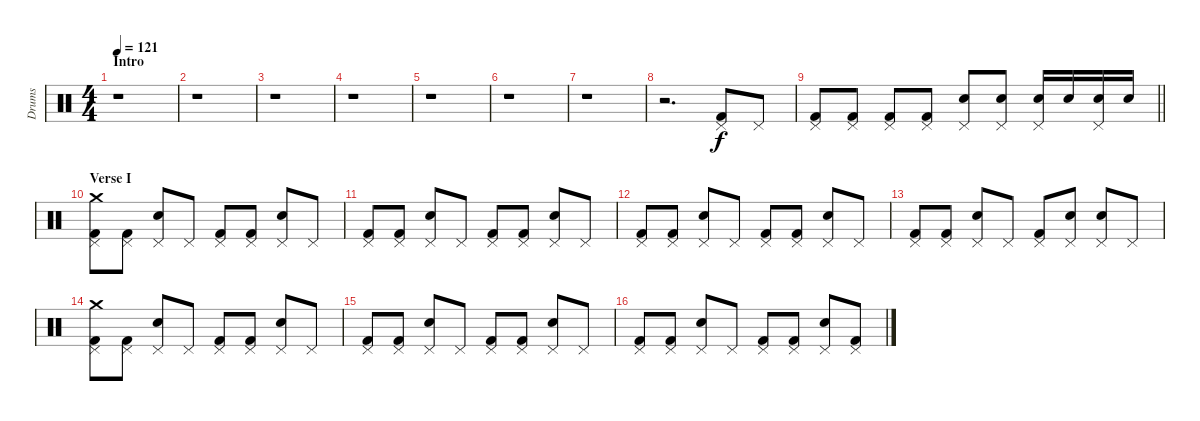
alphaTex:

\track ("Drums" "Drums") {instrument percussion}
\staff {score}
\articulation defaults
\ts (4 4)
\section ("" "Intro")
\tempo 121
\clef neutral
\ks c
r.1{dy f} |
r.1 |
r.1 |
r.1 |
r.1 |
r.1 |
r.1 |
r.2{d} ("Pedal Hi-Hat (hit)" "Kick (hit) 2").8 "Pedal Hi-Hat (hit)".8 |
\barLineRight lightlight
("Pedal Hi-Hat (hit)" "Kick (hit) 2").8 ("Pedal Hi-Hat (hit)" "Kick (hit) 2").8 ("Pedal Hi-Hat (hit)" "Kick (hit) 2").8 ("Pedal Hi-Hat (hit)" "Kick (hit) 2").8 ("Pedal Hi-Hat (hit)" "Snare (hit) 2").8 ("Pedal Hi-Hat (hit)" "Snare (hit) 2").8 ("Pedal Hi-Hat (hit)" "Snare (hit) 2").16 "Snare (hit) 2".16 ("Pedal Hi-Hat (hit)" "Snare (hit) 2").16 "Snare (hit) 2".16 |
\section ("" "Verse I")
("Pedal Hi-Hat (hit)" "Crash medium (hit)" "Kick (hit) 2").8 ("Pedal Hi-Hat (hit)" "Kick (hit) 2").8 ("Pedal Hi-Hat (hit)" "Snare (hit) 2").8 "Pedal Hi-Hat (hit)".8 ("Pedal Hi-Hat (hit)" "Kick (hit) 2").8 ("Pedal Hi-Hat (hit)" "Kick (hit) 2").8 ("Pedal Hi-Hat (hit)" "Snare (hit) 2").8 "Pedal Hi-Hat (hit)".8 |
("Pedal Hi-Hat (hit)" "Kick (hit) 2").8 ("Pedal Hi-Hat (hit)" "Kick (hit) 2").8 ("Pedal Hi-Hat (hit)" "Snare (hit) 2").8 "Pedal Hi-Hat (hit)".8 ("Pedal Hi-Hat (hit)" "Kick (hit) 2").8 ("Pedal Hi-Hat (hit)" "Kick (hit) 2").8 ("Pedal Hi-Hat (hit)" "Snare (hit) 2").8 "Pedal Hi-Hat (hit)".8 |
("Pedal Hi-Hat (hit)" "Kick (hit) 2").8 ("Pedal Hi-Hat (hit)" "Kick (hit) 2").8 ("Pedal Hi-Hat (hit)" "Snare (hit) 2").8 "Pedal Hi-Hat (hit)".8 ("Pedal Hi-Hat (hit)" "Kick (hit) 2").8 ("Pedal Hi-Hat (hit)" "Kick (hit) 2").8 ("Pedal Hi-Hat (hit)" "Snare (hit) 2").8 "Pedal Hi-Hat (hit)".8 |
("Pedal Hi-Hat (hit)" "Kick (hit) 2").8 ("Pedal Hi-Hat (hit)" "Kick (hit) 2").8 ("Pedal Hi-Hat (hit)" "Snare (hit) 2").8 "Pedal Hi-Hat (hit)".8 ("Pedal Hi-Hat (hit)" "Kick (hit) 2").8 ("Pedal Hi-Hat (hit)" "Snare (hit) 2").8 ("Pedal Hi-Hat (hit)" "Snare (hit) 2").8 "Pedal Hi-Hat (hit)".8 |
("Pedal Hi-Hat (hit)" "Crash medium (hit)" "Kick (hit) 2").8 ("Pedal Hi-Hat (hit)" "Kick (hit) 2").8 ("Pedal Hi-Hat (hit)" "Snare (hit) 2").8 "Pedal Hi-Hat (hit)".8 ("Pedal Hi-Hat (hit)" "Kick (hit) 2").8 ("Pedal Hi-Hat (hit)" "Kick (hit) 2").8 ("Pedal Hi-Hat (hit)" "Snare (hit) 2").8 "Pedal Hi-Hat (hit)".8 |
("Pedal Hi-Hat (hit)" "Kick (hit) 2").8 ("Pedal Hi-Hat (hit)" "Kick (hit) 2").8 ("Pedal Hi-Hat (hit)" "Snare (hit) 2").8 "Pedal Hi-Hat (hit)".8 ("Pedal Hi-Hat (hit)" "Kick (hit) 2").8 ("Pedal Hi-Hat (hit)" "Kick (hit) 2").8 ("Pedal Hi-Hat (hit)" "Snare (hit) 2").8 "Pedal Hi-Hat (hit)".8 |
("Pedal Hi-Hat (hit)" "Kick (hit) 2").8 ("Pedal Hi-Hat (hit)" "Kick (hit) 2").8 ("Pedal Hi-Hat (hit)" "Snare (hit) 2").8 "Pedal Hi-Hat (hit)".8 ("Pedal Hi-Hat (hit)" "Kick (hit) 2").8 ("Pedal Hi-Hat (hit)" "Kick (hit) 2").8 ("Pedal Hi-Hat (hit)" "Snare (hit) 2").8 ("Pedal Hi-Hat (hit)" "Kick (hit) 2").8
